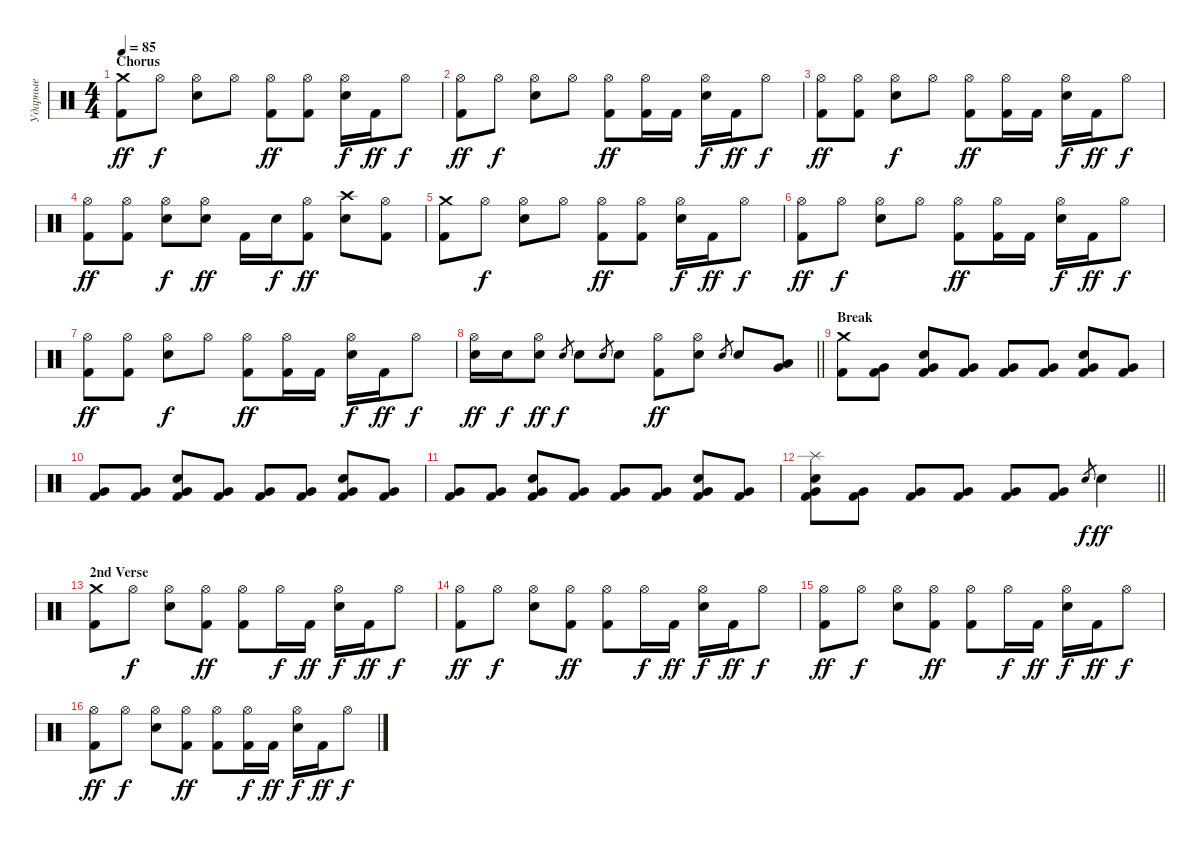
\track ("Ударные" "Ударные") {instrument percussion}
\staff {score}
\articulation defaults
\ts (4 4)
\section ("" "Chorus")
\tempo 85
\clef neutral
\ks c
("Kick (hit) 2" "Crash medium (hit)").8{dy ff} "Hi-Hat (open)".8{dy f} ("Electric Snare (hit)" "Hi-Hat (open)").8 "Hi-Hat (open)".8 ("Kick (hit) 2" "Hi-Hat (open)").8{dy ff} ("Kick (hit) 2" "Hi-Hat (open)").8 ("Electric Snare (hit)" "Hi-Hat (open)").16{dy f} "Kick (hit) 2".16{dy ff} "Hi-Hat (open)".8{dy f} |
("Kick (hit) 2" "Hi-Hat (open)").8{dy ff} "Hi-Hat (open)".8{dy f} ("Electric Snare (hit)" "Hi-Hat (open)").8 "Hi-Hat (open)".8 ("Kick (hit) 2" "Hi-Hat (open)").8{dy ff} ("Kick (hit) 2" "Hi-Hat (open)").16 "Kick (hit) 2".16 ("Electric Snare (hit)" "Hi-Hat (open)").16{dy f} "Kick (hit) 2".16{dy ff} "Hi-Hat (open)".8{dy f} |
("Kick (hit) 2" "Hi-Hat (open)").8{dy ff} ("Kick (hit) 2" "Hi-Hat (open)").8 ("Electric Snare (hit)" "Hi-Hat (open)").8{dy f} "Hi-Hat (open)".8 ("Kick (hit) 2" "Hi-Hat (open)").8{dy ff} ("Kick (hit) 2" "Hi-Hat (open)").16 "Kick (hit) 2".16 ("Electric Snare (hit)" "Hi-Hat (open)").16{dy f} "Kick (hit) 2".16{dy ff} "Hi-Hat (open)".8{dy f} |
("Kick (hit) 2" "Hi-Hat (open)").8{dy ff} ("Kick (hit) 2" "Hi-Hat (open)").8 ("Electric Snare (hit)" "Hi-Hat (open)").8{dy f} ("Electric Snare (hit)" "Hi-Hat (open)").8{dy ff} "Kick (hit) 2".16 "Electric Snare (hit)".16{dy f} ("Kick (hit) 2" "Hi-Hat (open)").8{dy ff} ("Electric Snare (hit)" "Crash high (hit)").8 ("Kick (hit) 2" "Hi-Hat (open)").8 |
("Kick (hit) 2" "Crash medium (hit)").8 "Hi-Hat (open)".8{dy f} ("Electric Snare (hit)" "Hi-Hat (open)").8 "Hi-Hat (open)".8 ("Kick (hit) 2" "Hi-Hat (open)").8{dy ff} ("Kick (hit) 2" "Hi-Hat (open)").8 ("Electric Snare (hit)" "Hi-Hat (open)").16{dy f} "Kick (hit) 2".16{dy ff} "Hi-Hat (open)".8{dy f} |
("Kick (hit) 2" "Hi-Hat (open)").8{dy ff} "Hi-Hat (open)".8{dy f} ("Electric Snare (hit)" "Hi-Hat (open)").8 "Hi-Hat (open)".8 ("Kick (hit) 2" "Hi-Hat (open)").8{dy ff} ("Kick (hit) 2" "Hi-Hat (open)").16 "Kick (hit) 2".16 ("Electric Snare (hit)" "Hi-Hat (open)").16{dy f} "Kick (hit) 2".16{dy ff} "Hi-Hat (open)".8{dy f} |
("Kick (hit) 2" "Hi-Hat (open)").8{dy ff} ("Kick (hit) 2" "Hi-Hat (open)").8 ("Electric Snare (hit)" "Hi-Hat (open)").8{dy f} "Hi-Hat (open)".8 ("Kick (hit) 2" "Hi-Hat (open)").8{dy ff} ("Kick (hit) 2" "Hi-Hat (open)").16 "Kick (hit) 2".16 ("Electric Snare (hit)" "Hi-Hat (open)").16{dy f} "Kick (hit) 2".16{dy ff} "Hi-Hat (open)".8{dy f} |
\barLineRight lightlight
("Electric Snare (hit)" "Hi-Hat (open)").16{dy ff} "Electric Snare (hit)".16{dy f} ("Electric Snare (hit)" "Hi-Hat (open)").8{dy ff} "Electric Snare (hit)".8{gr dy f} "Electric Snare (hit)".8 "Electric Snare (hit)".8{gr} "Electric Snare (hit)".8 ("Kick (hit) 2" "Hi-Hat (open)").8{dy ff} ("Electric Snare (hit)" "Hi-Hat (open)").8 "Electric Snare (hit)".8{gr} "Electric Snare (hit)".8 ("Very Low Tom (hit)" "Low Tom (hit)").8 |
\section ("" "Break")
("Kick (hit) 2" "Crash medium (hit)").8 ("Kick (hit) 2" "Very Low Tom (hit)").8 ("Kick (hit) 2" "Very Low Tom (hit)" "Electric Snare (hit)").8 ("Kick (hit) 2" "Very Low Tom (hit)").8 ("Kick (hit) 2" "Very Low Tom (hit)").8 ("Kick (hit) 2" "Very Low Tom (hit)").8 ("Kick (hit) 2" "Very Low Tom (hit)" "Electric Snare (hit)").8 ("Kick (hit) 2" "Very Low Tom (hit)").8 |
("Kick (hit) 2" "Very Low Tom (hit)").8 ("Kick (hit) 2" "Very Low Tom (hit)").8 ("Kick (hit) 2" "Very Low Tom (hit)" "Electric Snare (hit)").8 ("Kick (hit) 2" "Very Low Tom (hit)").8 ("Kick (hit) 2" "Very Low Tom (hit)").8 ("Kick (hit) 2" "Very Low Tom (hit)").8 ("Kick (hit) 2" "Very Low Tom (hit)" "Electric Snare (hit)").8 ("Kick (hit) 2" "Very Low Tom (hit)").8 |
("Kick (hit) 2" "Very Low Tom (hit)").8 ("Kick (hit) 2" "Very Low Tom (hit)").8 ("Kick (hit) 2" "Very Low Tom (hit)" "Electric Snare (hit)").8 ("Kick (hit) 2" "Very Low Tom (hit)").8 ("Kick (hit) 2" "Very Low Tom (hit)").8 ("Kick (hit) 2" "Very Low Tom (hit)").8 ("Kick (hit) 2" "Very Low Tom (hit)" "Electric Snare (hit)").8 ("Kick (hit) 2" "Very Low Tom (hit)").8 |
\barLineRight lightlight
("Kick (hit) 2" "Very Low Tom (hit)" "Electric Snare (hit)" "Splash (hit)").8 ("Kick (hit) 2" "Very Low Tom (hit)").8 ("Kick (hit) 2" "Very Low Tom (hit)").8 ("Kick (hit) 2" "Very Low Tom (hit)").8 ("Kick (hit) 2" "Very Low Tom (hit)").8 ("Kick (hit) 2" "Very Low Tom (hit)").8 "Electric Snare (hit)".8{gr dy f} "Electric Snare (hit)".4{dy ff} |
\section ("" "2nd Verse")
("Kick (hit) 2" "Crash medium (hit)").8 "Hi-Hat (open)".8{dy f} ("Electric Snare (hit)" "Hi-Hat (open)").8 ("Kick (hit) 2" "Hi-Hat (open)").8{dy ff} ("Kick (hit) 2" "Hi-Hat (open)").8 "Hi-Hat (open)".16{dy f} "Kick (hit) 2".16{dy ff} ("Electric Snare (hit)" "Hi-Hat (open)").16{dy f} "Kick (hit) 2".16{dy ff} "Hi-Hat (open)".8{dy f} |
("Kick (hit) 2" "Hi-Hat (open)").8{dy ff} "Hi-Hat (open)".8{dy f} ("Electric Snare (hit)" "Hi-Hat (open)").8 ("Kick (hit) 2" "Hi-Hat (open)").8{dy ff} ("Kick (hit) 2" "Hi-Hat (open)").8 "Hi-Hat (open)".16{dy f} "Kick (hit) 2".16{dy ff} ("Electric Snare (hit)" "Hi-Hat (open)").16{dy f} "Kick (hit) 2".16{dy ff} "Hi-Hat (open)".8{dy f} |
("Kick (hit) 2" "Hi-Hat (open)").8{dy ff} "Hi-Hat (open)".8{dy f} ("Electric Snare (hit)" "Hi-Hat (open)").8 ("Kick (hit) 2" "Hi-Hat (open)").8{dy ff} ("Kick (hit) 2" "Hi-Hat (open)").8 "Hi-Hat (open)".16{dy f} "Kick (hit) 2".16{dy ff} ("Electric Snare (hit)" "Hi-Hat (open)").16{dy f} "Kick (hit) 2".16{dy ff} "Hi-Hat (open)".8{dy f} |
("Kick (hit) 2" "Hi-Hat (open)").8{dy ff} "Hi-Hat (open)".8{dy f} ("Electric Snare (hit)" "Hi-Hat (open)").8 ("Kick (hit) 2" "Hi-Hat (open)").8{dy ff} ("Kick (hit) 2" "Hi-Hat (open)").8 ("Kick (hit) 2" "Hi-Hat (open)").16{dy f} "Kick (hit) 2".16{dy ff} ("Electric Snare (hit)" "Hi-Hat (open)").16{dy f} "Kick (hit) 2".16{dy ff} "Hi-Hat (open)".8{dy f}
